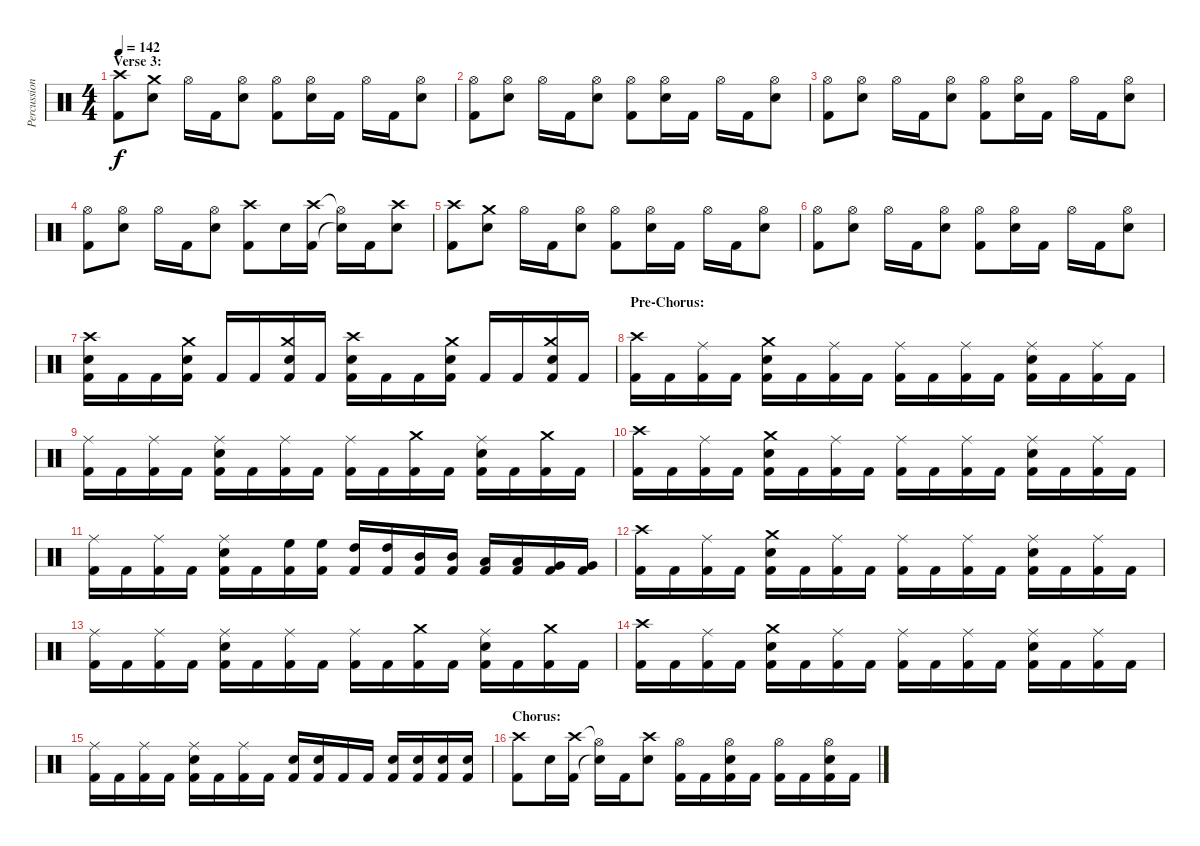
\track ("Percussion" "Percussion") {instrument percussion}
\staff {score}
\articulation defaults
\ts (4 4)
\section ("" "Verse 3:")
\tempo 142
\clef neutral
\ks c
("Crash high (hit)" "Kick (hit) 2").8{dy f} ("Crash medium (hit)" "Snare (hit) 2").8 "Hi-Hat (open)".16 "Kick (hit) 2".16 ("Hi-Hat (open)" "Snare (hit) 2").8 ("Hi-Hat (open)" "Kick (hit) 2").8 ("Hi-Hat (open)" "Snare (hit) 2").16 "Kick (hit) 2".16 "Hi-Hat (open)".16 "Kick (hit) 2".16 ("Hi-Hat (open)" "Snare (hit) 2").8 |
("Hi-Hat (open)" "Kick (hit) 2").8 ("Hi-Hat (open)" "Snare (hit) 2").8 "Hi-Hat (open)".16 "Kick (hit) 2".16 ("Hi-Hat (open)" "Snare (hit) 2").8 ("Hi-Hat (open)" "Kick (hit) 2").8 ("Hi-Hat (open)" "Snare (hit) 2").16 "Kick (hit) 2".16 "Hi-Hat (open)".16 "Kick (hit) 2".16 ("Hi-Hat (open)" "Snare (hit) 2").8 |
("Hi-Hat (open)" "Kick (hit) 2").8 ("Hi-Hat (open)" "Snare (hit) 2").8 "Hi-Hat (open)".16 "Kick (hit) 2".16 ("Hi-Hat (open)" "Snare (hit) 2").8 ("Hi-Hat (open)" "Kick (hit) 2").8 ("Hi-Hat (open)" "Snare (hit) 2").16 "Kick (hit) 2".16 "Hi-Hat (open)".16 "Kick (hit) 2".16 ("Hi-Hat (open)" "Snare (hit) 2").8 |
("Hi-Hat (open)" "Kick (hit) 2").8 ("Hi-Hat (open)" "Snare (hit) 2").8 "Hi-Hat (open)".16 "Kick (hit) 2".16 ("Hi-Hat (open)" "Snare (hit) 2").8 ("Crash high (hit)" "Kick (hit) 2").8 "Snare (hit) 2".16 ("Crash high (hit)" "Kick (hit) 2").16 ("Hi-Hat (open)"{t} "Snare (hit)"{t}).16 "Kick (hit) 2".16 ("Crash high (hit)" "Snare (hit) 2").8 |
("Crash high (hit)" "Kick (hit) 2").8 ("Crash medium (hit)" "Snare (hit) 2").8 "Hi-Hat (open)".16 "Kick (hit) 2".16 ("Hi-Hat (open)" "Snare (hit) 2").8 ("Hi-Hat (open)" "Kick (hit) 2").8 ("Hi-Hat (open)" "Snare (hit) 2").16 "Kick (hit) 2".16 "Hi-Hat (open)".16 "Kick (hit) 2".16 ("Hi-Hat (open)" "Snare (hit) 2").8 |
("Hi-Hat (open)" "Kick (hit) 2").8 ("Hi-Hat (open)" "Snare (hit) 2").8 "Hi-Hat (open)".16 "Kick (hit) 2".16 ("Hi-Hat (open)" "Snare (hit) 2").8 ("Hi-Hat (open)" "Kick (hit) 2").8 ("Hi-Hat (open)" "Snare (hit) 2").16 "Kick (hit) 2".16 "Hi-Hat (open)".16 "Kick (hit) 2".16 ("Hi-Hat (open)" "Snare (hit) 2").8 |
("Crash high (hit)" "Snare (hit) 2" "Kick (hit) 2").16 "Kick (hit) 2".16 "Kick (hit) 2".16 ("Crash medium (hit)" "Snare (hit) 2" "Kick (hit) 2").16 "Kick (hit) 2".16 "Kick (hit) 2".16 ("Crash medium (hit)" "Snare (hit) 2" "Kick (hit) 2").16 "Kick (hit) 2".16 ("Crash high (hit)" "Snare (hit) 2" "Kick (hit) 2").16 "Kick (hit) 2".16 "Kick (hit) 2".16 ("Crash medium (hit)" "Snare (hit) 2" "Kick (hit) 2").16 "Kick (hit) 2".16 "Kick (hit) 2".16 ("Crash medium (hit)" "Snare (hit) 2" "Kick (hit) 2").16 "Kick (hit) 2".16 |
\section ("" "Pre-Chorus:")
("Crash high (hit)" "Kick (hit) 2").16 "Kick (hit) 2".16 ("Ride (middle)" "Kick (hit) 2").16 "Kick (hit) 2".16 ("Crash medium (hit)" "Snare (hit) 2" "Kick (hit) 2").16 "Kick (hit) 2".16 ("Ride (middle)" "Kick (hit) 2").16 "Kick (hit) 2".16 ("Ride (middle)" "Kick (hit) 2").16 "Kick (hit) 2".16 ("Ride (middle)" "Kick (hit) 2").16 "Kick (hit) 2".16 ("Ride (middle)" "Snare (hit) 2" "Kick (hit) 2").16 "Kick (hit) 2".16 ("Ride (middle)" "Kick (hit) 2").16 "Kick (hit) 2".16 |
("Ride (middle)" "Kick (hit) 2").16 "Kick (hit) 2".16 ("Ride (middle)" "Kick (hit) 2").16 "Kick (hit) 2".16 ("Ride (middle)" "Snare (hit) 2" "Kick (hit) 2").16 "Kick (hit) 2".16 ("Ride (middle)" "Kick (hit) 2").16 "Kick (hit) 2".16 ("Ride (middle)" "Kick (hit) 2").16 "Kick (hit) 2".16 ("Crash medium (hit)" "Kick (hit) 2").16 "Kick (hit) 2".16 ("Ride (middle)" "Snare (hit) 2" "Kick (hit) 2").16 "Kick (hit) 2".16 ("Crash medium (hit)" "Kick (hit) 2").16 "Kick (hit) 2".16 |
("Crash high (hit)" "Kick (hit) 2").16 "Kick (hit) 2".16 ("Ride (middle)" "Kick (hit) 2").16 "Kick (hit) 2".16 ("Crash medium (hit)" "Snare (hit) 2" "Kick (hit) 2").16 "Kick (hit) 2".16 ("Ride (middle)" "Kick (hit) 2").16 "Kick (hit) 2".16 ("Ride (middle)" "Kick (hit) 2").16 "Kick (hit) 2".16 ("Ride (middle)" "Kick (hit) 2").16 "Kick (hit) 2".16 ("Ride (middle)" "Snare (hit) 2" "Kick (hit) 2").16 "Kick (hit) 2".16 ("Ride (middle)" "Kick (hit) 2").16 "Kick (hit) 2".16 |
("Ride (middle)" "Kick (hit) 2").16 "Kick (hit) 2".16 ("Ride (middle)" "Kick (hit) 2").16 "Kick (hit) 2".16 ("Ride (middle)" "Snare (hit) 2" "Kick (hit) 2").16 "Kick (hit) 2".16 ("High Floor Tom (hit)" "Kick (hit) 2").16 ("High Floor Tom (hit)" "Kick (hit) 2").16 ("High Tom (hit)" "Kick (hit) 2").16 ("High Tom (hit)" "Kick (hit) 2").16 ("Mid Tom (hit)" "Kick (hit) 2").16 ("Mid Tom (hit)" "Kick (hit) 2").16 ("Low Tom (hit)" "Kick (hit) 2").16 ("Low Tom (hit)" "Kick (hit) 2").16 ("Very Low Tom (hit)" "Kick (hit) 2").16 ("Very Low Tom (hit)" "Kick (hit) 2").16 |
("Crash high (hit)" "Kick (hit) 2").16 "Kick (hit) 2".16 ("Ride (middle)" "Kick (hit) 2").16 "Kick (hit) 2".16 ("Crash medium (hit)" "Snare (hit) 2" "Kick (hit) 2").16 "Kick (hit) 2".16 ("Ride (middle)" "Kick (hit) 2").16 "Kick (hit) 2".16 ("Ride (middle)" "Kick (hit) 2").16 "Kick (hit) 2".16 ("Ride (middle)" "Kick (hit) 2").16 "Kick (hit) 2".16 ("Ride (middle)" "Snare (hit) 2" "Kick (hit) 2").16 "Kick (hit) 2".16 ("Ride (middle)" "Kick (hit) 2").16 "Kick (hit) 2".16 |
("Ride (middle)" "Kick (hit) 2").16 "Kick (hit) 2".16 ("Ride (middle)" "Kick (hit) 2").16 "Kick (hit) 2".16 ("Ride (middle)" "Snare (hit) 2" "Kick (hit) 2").16 "Kick (hit) 2".16 ("Ride (middle)" "Kick (hit) 2").16 "Kick (hit) 2".16 ("Ride (middle)" "Kick (hit) 2").16 "Kick (hit) 2".16 ("Crash medium (hit)" "Kick (hit) 2").16 "Kick (hit) 2".16 ("Ride (middle)" "Snare (hit) 2" "Kick (hit) 2").16 "Kick (hit) 2".16 ("Crash medium (hit)" "Kick (hit) 2").16 "Kick (hit) 2".16 |
("Crash high (hit)" "Kick (hit) 2").16 "Kick (hit) 2".16 ("Ride (middle)" "Kick (hit) 2").16 "Kick (hit) 2".16 ("Crash medium (hit)" "Snare (hit) 2" "Kick (hit) 2").16 "Kick (hit) 2".16 ("Ride (middle)" "Kick (hit) 2").16 "Kick (hit) 2".16 ("Ride (middle)" "Kick (hit) 2").16 "Kick (hit) 2".16 ("Ride (middle)" "Kick (hit) 2").16 "Kick (hit) 2".16 ("Ride (middle)" "Snare (hit) 2" "Kick (hit) 2").16 "Kick (hit) 2".16 ("Ride (middle)" "Kick (hit) 2").16 "Kick (hit) 2".16 |
("Ride (middle)" "Kick (hit) 2").16 "Kick (hit) 2".16 ("Ride (middle)" "Kick (hit) 2").16 "Kick (hit) 2".16 ("Ride (middle)" "Snare (hit) 2" "Kick (hit) 2").16 "Kick (hit) 2".16 ("Ride (middle)" "Kick (hit) 2").16 "Kick (hit) 2".16 ("Snare (hit) 2" "Kick (hit) 2").16 ("Snare (hit) 2" "Kick (hit) 2").16 "Kick (hit) 2".16 "Kick (hit) 2".16 ("Snare (hit) 2" "Kick (hit) 2").16 ("Snare (hit) 2" "Kick (hit) 2").16 ("Snare (hit) 2" "Kick (hit) 2").16 ("Snare (hit) 2" "Kick (hit) 2").16 |
\section ("" "Chorus:")
("Crash high (hit)" "Kick (hit) 2").8 "Snare (hit) 2".16 ("Crash high (hit)" "Kick (hit) 2").16 ("Hi-Hat (open)"{t} "Snare (hit)"{t}).16 "Kick (hit) 2".16 ("Crash high (hit)" "Snare (hit) 2").8 ("Hi-Hat (open)" "Kick (hit) 2").16 "Kick (hit) 2".16 ("Hi-Hat (open)" "Snare (hit) 2" "Kick (hit) 2").16 "Kick (hit) 2".16 ("Hi-Hat (open)" "Kick (hit) 2").16 "Kick (hit) 2".16 ("Hi-Hat (open)" "Snare (hit) 2" "Kick (hit) 2").16 "Kick (hit) 2".16
